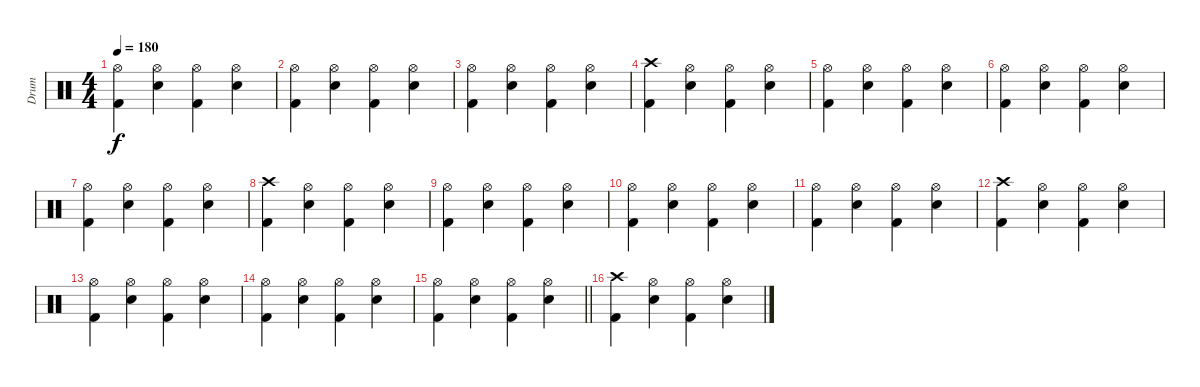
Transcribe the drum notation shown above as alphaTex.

\track ("Drum" "Drum") {instrument percussion}
\staff {score}
\articulation defaults
\ts (4 4)
\tempo 180
\clef neutral
\ks c
("Hi-Hat (open)" "Kick (hit) 2").4{dy f} ("Hi-Hat (open)" "Electric Snare (hit)").4 ("Hi-Hat (open)" "Kick (hit) 2").4 ("Hi-Hat (open)" "Electric Snare (hit)").4 |
("Hi-Hat (open)" "Kick (hit) 2").4 ("Hi-Hat (open)" "Electric Snare (hit)").4 ("Hi-Hat (open)" "Kick (hit) 2").4 ("Hi-Hat (open)" "Electric Snare (hit)").4 |
("Hi-Hat (open)" "Kick (hit) 2").4 ("Hi-Hat (open)" "Electric Snare (hit)").4 ("Hi-Hat (open)" "Kick (hit) 2").4 ("Hi-Hat (open)" "Electric Snare (hit)").4 |
("Crash high (hit)" "Kick (hit) 2").4 ("Hi-Hat (open)" "Electric Snare (hit)").4 ("Hi-Hat (open)" "Kick (hit) 2").4 ("Hi-Hat (open)" "Electric Snare (hit)").4 |
("Hi-Hat (open)" "Kick (hit) 2").4 ("Hi-Hat (open)" "Electric Snare (hit)").4 ("Hi-Hat (open)" "Kick (hit) 2").4 ("Hi-Hat (open)" "Electric Snare (hit)").4 |
("Hi-Hat (open)" "Kick (hit) 2").4 ("Hi-Hat (open)" "Electric Snare (hit)").4 ("Hi-Hat (open)" "Kick (hit) 2").4 ("Hi-Hat (open)" "Electric Snare (hit)").4 |
("Hi-Hat (open)" "Kick (hit) 2").4 ("Hi-Hat (open)" "Electric Snare (hit)").4 ("Hi-Hat (open)" "Kick (hit) 2").4 ("Hi-Hat (open)" "Electric Snare (hit)").4 |
("Crash high (hit)" "Kick (hit) 2").4 ("Hi-Hat (open)" "Electric Snare (hit)").4 ("Hi-Hat (open)" "Kick (hit) 2").4 ("Hi-Hat (open)" "Electric Snare (hit)").4 |
("Hi-Hat (open)" "Kick (hit) 2").4 ("Hi-Hat (open)" "Electric Snare (hit)").4 ("Hi-Hat (open)" "Kick (hit) 2").4 ("Hi-Hat (open)" "Electric Snare (hit)").4 |
("Hi-Hat (open)" "Kick (hit) 2").4 ("Hi-Hat (open)" "Electric Snare (hit)").4 ("Hi-Hat (open)" "Kick (hit) 2").4 ("Hi-Hat (open)" "Electric Snare (hit)").4 |
("Hi-Hat (open)" "Kick (hit) 2").4 ("Hi-Hat (open)" "Electric Snare (hit)").4 ("Hi-Hat (open)" "Kick (hit) 2").4 ("Hi-Hat (open)" "Electric Snare (hit)").4 |
("Crash high (hit)" "Kick (hit) 2").4 ("Hi-Hat (open)" "Electric Snare (hit)").4 ("Hi-Hat (open)" "Kick (hit) 2").4 ("Hi-Hat (open)" "Electric Snare (hit)").4 |
("Hi-Hat (open)" "Kick (hit) 2").4 ("Hi-Hat (open)" "Electric Snare (hit)").4 ("Hi-Hat (open)" "Kick (hit) 2").4 ("Hi-Hat (open)" "Electric Snare (hit)").4 |
("Hi-Hat (open)" "Kick (hit) 2").4 ("Hi-Hat (open)" "Electric Snare (hit)").4 ("Hi-Hat (open)" "Kick (hit) 2").4 ("Hi-Hat (open)" "Electric Snare (hit)").4 |
\barLineRight lightlight
("Hi-Hat (open)" "Kick (hit) 2").4 ("Hi-Hat (open)" "Electric Snare (hit)").4 ("Hi-Hat (open)" "Kick (hit) 2").4 ("Hi-Hat (open)" "Electric Snare (hit)").4 |
("Crash high (hit)" "Kick (hit) 2").4 ("Hi-Hat (open)" "Electric Snare (hit)").4 ("Hi-Hat (open)" "Kick (hit) 2").4 ("Hi-Hat (open)" "Electric Snare (hit)").4
